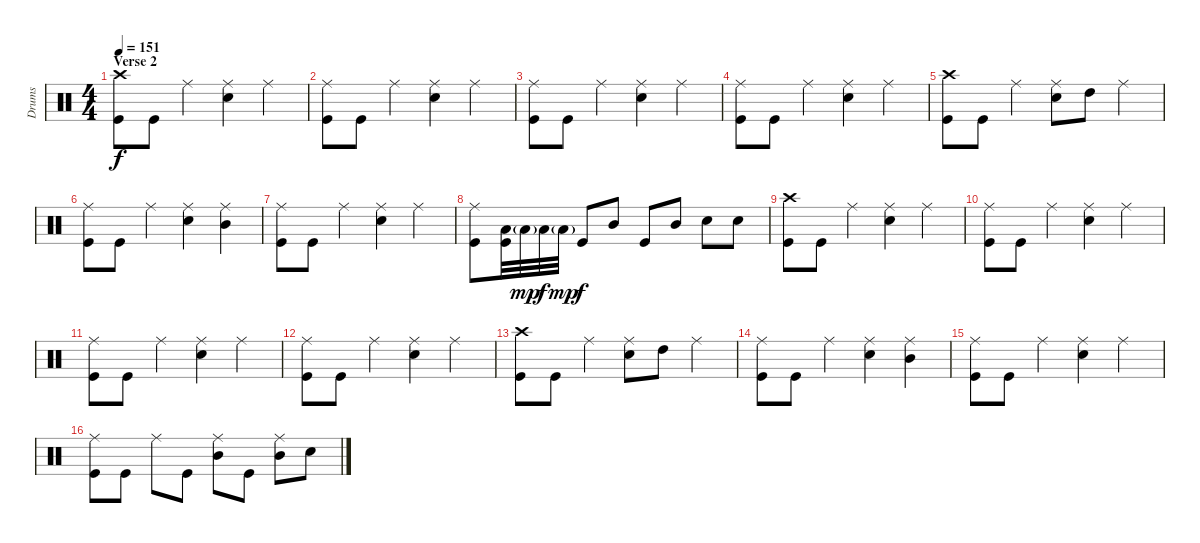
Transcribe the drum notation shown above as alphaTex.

\track ("Drums" "Drums") {instrument percussion}
\staff {score}
\articulation defaults
\ts (4 4)
\section ("" "Verse 2")
\tempo 151
\clef neutral
\ks c
("Crash high (hit)" "Kick (hit)").8{dy f} "Kick (hit)".8 "Ride (middle)".4 ("Ride (middle)" "Electric Snare (hit)").4 "Ride (middle)".4 |
("Ride (middle)" "Kick (hit)").8 "Kick (hit)".8 "Ride (middle)".4 ("Ride (middle)" "Electric Snare (hit)").4 "Ride (middle)".4 |
("Ride (middle)" "Kick (hit)").8 "Kick (hit)".8 "Ride (middle)".4 ("Ride (middle)" "Electric Snare (hit)").4 "Ride (middle)".4 |
("Ride (middle)" "Kick (hit)").8 "Kick (hit)".8 "Ride (middle)".4 ("Ride (middle)" "Electric Snare (hit)").4 "Ride (middle)".4 |
("Crash high (hit)" "Kick (hit)").8 "Kick (hit)".8 "Ride (middle)".4 ("Ride (middle)" "Electric Snare (hit)").8 "High Tom (hit)".8 "Ride (middle)".4 |
("Ride (middle)" "Kick (hit)").8 "Kick (hit)".8 "Ride (middle)".4 ("Ride (middle)" "Electric Snare (hit)").4 ("Ride (middle)" "Mid Tom (hit)").4 |
("Ride (middle)" "Kick (hit)").8 "Kick (hit)".8 "Ride (middle)".4 ("Ride (middle)" "Electric Snare (hit)").4 "Ride (middle)".4 |
("Ride (middle)" "Kick (hit)").8 ("Low Tom (hit)" "Kick (hit)").32 "Low Tom (hit)"{g}.32{dy mp} "Low Tom (hit)".32{dy f} "Low Tom (hit)"{g}.32{dy mp} "Kick (hit)".8{dy f} "Mid Tom (hit)".8 "Kick (hit)".8 "Mid Tom (hit)".8 "Electric Snare (hit)".8 "Electric Snare (hit)".8 |
("Crash high (hit)" "Kick (hit)").8 "Kick (hit)".8 "Ride (middle)".4 ("Ride (middle)" "Electric Snare (hit)").4 "Ride (middle)".4 |
("Ride (middle)" "Kick (hit)").8 "Kick (hit)".8 "Ride (middle)".4 ("Ride (middle)" "Electric Snare (hit)").4 "Ride (middle)".4 |
("Ride (middle)" "Kick (hit)").8 "Kick (hit)".8 "Ride (middle)".4 ("Ride (middle)" "Electric Snare (hit)").4 "Ride (middle)".4 |
("Ride (middle)" "Kick (hit)").8 "Kick (hit)".8 "Ride (middle)".4 ("Ride (middle)" "Electric Snare (hit)").4 "Ride (middle)".4 |
("Crash high (hit)" "Kick (hit)").8 "Kick (hit)".8 "Ride (middle)".4 ("Ride (middle)" "Electric Snare (hit)").8 "High Tom (hit)".8 "Ride (middle)".4 |
("Ride (middle)" "Kick (hit)").8 "Kick (hit)".8 "Ride (middle)".4 ("Ride (middle)" "Electric Snare (hit)").4 ("Ride (middle)" "Mid Tom (hit)").4 |
("Ride (middle)" "Kick (hit)").8 "Kick (hit)".8 "Ride (middle)".4 ("Ride (middle)" "Electric Snare (hit)").4 "Ride (middle)".4 |
("Ride (middle)" "Kick (hit)").8 "Kick (hit)".8 "Ride (middle)".8 "Kick (hit)".8 ("Ride (middle)" "Mid Tom (hit)").8 "Kick (hit)".8 ("Ride (middle)" "Mid Tom (hit)").8 "Electric Snare (hit)".8
